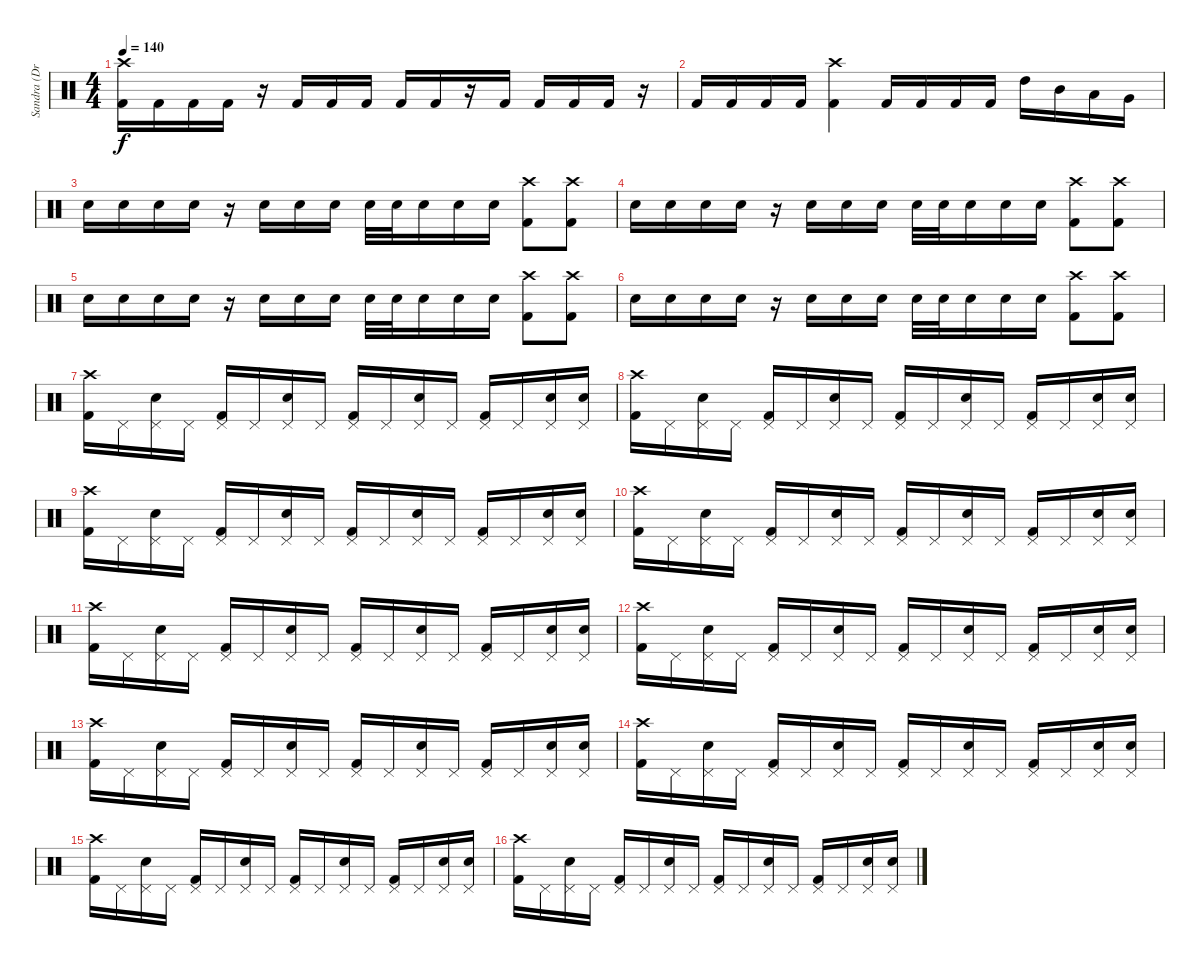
\track ("Sandra (Drums)" "Sandra (Dr") {instrument percussion}
\staff {score}
\articulation defaults
\ts (4 4)
\tempo 140
\clef neutral
\ks c
("Crash high (hit)" "Kick (hit) 2").16{dy f} "Kick (hit) 2".16 "Kick (hit) 2".16 "Kick (hit) 2".16 r.16 "Kick (hit) 2".16 "Kick (hit) 2".16 "Kick (hit) 2".16 "Kick (hit) 2".16 "Kick (hit) 2".16 r.16 "Kick (hit) 2".16 "Kick (hit) 2".16 "Kick (hit) 2".16 "Kick (hit) 2".16 r.16 |
"Kick (hit) 2".16 "Kick (hit) 2".16 "Kick (hit) 2".16 "Kick (hit) 2".16 ("Crash high (hit)" "Kick (hit) 2").4 "Kick (hit) 2".16 "Kick (hit) 2".16 "Kick (hit) 2".16 "Kick (hit) 2".16 "High Tom (hit)".16 "Mid Tom (hit)".16 "Low Tom (hit)".16 "Very Low Tom (hit)".16 |
"Snare (hit) 2".16 "Snare (hit) 2".16 "Snare (hit) 2".16 "Snare (hit) 2".16 r.16 "Snare (hit) 2".16 "Snare (hit) 2".16 "Snare (hit) 2".16 "Snare (hit) 2".32 "Snare (hit) 2".32 "Snare (hit) 2".16 "Snare (hit) 2".16 "Snare (hit) 2".16 ("Crash high (hit)" "Kick (hit) 2").8 ("Crash high (hit)" "Kick (hit) 2").8 |
"Snare (hit) 2".16 "Snare (hit) 2".16 "Snare (hit) 2".16 "Snare (hit) 2".16 r.16 "Snare (hit) 2".16 "Snare (hit) 2".16 "Snare (hit) 2".16 "Snare (hit) 2".32 "Snare (hit) 2".32 "Snare (hit) 2".16 "Snare (hit) 2".16 "Snare (hit) 2".16 ("Crash high (hit)" "Kick (hit) 2").8 ("Crash high (hit)" "Kick (hit) 2").8 |
"Snare (hit) 2".16 "Snare (hit) 2".16 "Snare (hit) 2".16 "Snare (hit) 2".16 r.16 "Snare (hit) 2".16 "Snare (hit) 2".16 "Snare (hit) 2".16 "Snare (hit) 2".32 "Snare (hit) 2".32 "Snare (hit) 2".16 "Snare (hit) 2".16 "Snare (hit) 2".16 ("Crash high (hit)" "Kick (hit) 2").8 ("Crash high (hit)" "Kick (hit) 2").8 |
"Snare (hit) 2".16 "Snare (hit) 2".16 "Snare (hit) 2".16 "Snare (hit) 2".16 r.16 "Snare (hit) 2".16 "Snare (hit) 2".16 "Snare (hit) 2".16 "Snare (hit) 2".32 "Snare (hit) 2".32 "Snare (hit) 2".16 "Snare (hit) 2".16 "Snare (hit) 2".16 ("Crash high (hit)" "Kick (hit) 2").8 ("Crash high (hit)" "Kick (hit) 2").8 |
("Crash high (hit)" "Kick (hit) 2").16 "Pedal Hi-Hat (hit)".16 ("Pedal Hi-Hat (hit)" "Snare (hit) 2").16 "Pedal Hi-Hat (hit)".16 ("Pedal Hi-Hat (hit)" "Kick (hit) 2").16 "Pedal Hi-Hat (hit)".16 ("Pedal Hi-Hat (hit)" "Snare (hit) 2").16 "Pedal Hi-Hat (hit)".16 ("Pedal Hi-Hat (hit)" "Kick (hit) 2").16 "Pedal Hi-Hat (hit)".16 ("Pedal Hi-Hat (hit)" "Snare (hit) 2").16 "Pedal Hi-Hat (hit)".16 ("Pedal Hi-Hat (hit)" "Kick (hit) 2").16 "Pedal Hi-Hat (hit)".16 ("Pedal Hi-Hat (hit)" "Snare (hit) 2").16 ("Pedal Hi-Hat (hit)" "Snare (hit) 2").16 |
("Crash high (hit)" "Kick (hit) 2").16 "Pedal Hi-Hat (hit)".16 ("Pedal Hi-Hat (hit)" "Snare (hit) 2").16 "Pedal Hi-Hat (hit)".16 ("Pedal Hi-Hat (hit)" "Kick (hit) 2").16 "Pedal Hi-Hat (hit)".16 ("Pedal Hi-Hat (hit)" "Snare (hit) 2").16 "Pedal Hi-Hat (hit)".16 ("Pedal Hi-Hat (hit)" "Kick (hit) 2").16 "Pedal Hi-Hat (hit)".16 ("Pedal Hi-Hat (hit)" "Snare (hit) 2").16 "Pedal Hi-Hat (hit)".16 ("Pedal Hi-Hat (hit)" "Kick (hit) 2").16 "Pedal Hi-Hat (hit)".16 ("Pedal Hi-Hat (hit)" "Snare (hit) 2").16 ("Pedal Hi-Hat (hit)" "Snare (hit) 2").16 |
("Crash high (hit)" "Kick (hit) 2").16 "Pedal Hi-Hat (hit)".16 ("Pedal Hi-Hat (hit)" "Snare (hit) 2").16 "Pedal Hi-Hat (hit)".16 ("Pedal Hi-Hat (hit)" "Kick (hit) 2").16 "Pedal Hi-Hat (hit)".16 ("Pedal Hi-Hat (hit)" "Snare (hit) 2").16 "Pedal Hi-Hat (hit)".16 ("Pedal Hi-Hat (hit)" "Kick (hit) 2").16 "Pedal Hi-Hat (hit)".16 ("Pedal Hi-Hat (hit)" "Snare (hit) 2").16 "Pedal Hi-Hat (hit)".16 ("Pedal Hi-Hat (hit)" "Kick (hit) 2").16 "Pedal Hi-Hat (hit)".16 ("Pedal Hi-Hat (hit)" "Snare (hit) 2").16 ("Pedal Hi-Hat (hit)" "Snare (hit) 2").16 |
("Crash high (hit)" "Kick (hit) 2").16 "Pedal Hi-Hat (hit)".16 ("Pedal Hi-Hat (hit)" "Snare (hit) 2").16 "Pedal Hi-Hat (hit)".16 ("Pedal Hi-Hat (hit)" "Kick (hit) 2").16 "Pedal Hi-Hat (hit)".16 ("Pedal Hi-Hat (hit)" "Snare (hit) 2").16 "Pedal Hi-Hat (hit)".16 ("Pedal Hi-Hat (hit)" "Kick (hit) 2").16 "Pedal Hi-Hat (hit)".16 ("Pedal Hi-Hat (hit)" "Snare (hit) 2").16 "Pedal Hi-Hat (hit)".16 ("Pedal Hi-Hat (hit)" "Kick (hit) 2").16 "Pedal Hi-Hat (hit)".16 ("Pedal Hi-Hat (hit)" "Snare (hit) 2").16 ("Pedal Hi-Hat (hit)" "Snare (hit) 2").16 |
("Crash high (hit)" "Kick (hit) 2").16 "Pedal Hi-Hat (hit)".16 ("Pedal Hi-Hat (hit)" "Snare (hit) 2").16 "Pedal Hi-Hat (hit)".16 ("Pedal Hi-Hat (hit)" "Kick (hit) 2").16 "Pedal Hi-Hat (hit)".16 ("Pedal Hi-Hat (hit)" "Snare (hit) 2").16 "Pedal Hi-Hat (hit)".16 ("Pedal Hi-Hat (hit)" "Kick (hit) 2").16 "Pedal Hi-Hat (hit)".16 ("Pedal Hi-Hat (hit)" "Snare (hit) 2").16 "Pedal Hi-Hat (hit)".16 ("Pedal Hi-Hat (hit)" "Kick (hit) 2").16 "Pedal Hi-Hat (hit)".16 ("Pedal Hi-Hat (hit)" "Snare (hit) 2").16 ("Pedal Hi-Hat (hit)" "Snare (hit) 2").16 |
("Crash high (hit)" "Kick (hit) 2").16 "Pedal Hi-Hat (hit)".16 ("Pedal Hi-Hat (hit)" "Snare (hit) 2").16 "Pedal Hi-Hat (hit)".16 ("Pedal Hi-Hat (hit)" "Kick (hit) 2").16 "Pedal Hi-Hat (hit)".16 ("Pedal Hi-Hat (hit)" "Snare (hit) 2").16 "Pedal Hi-Hat (hit)".16 ("Pedal Hi-Hat (hit)" "Kick (hit) 2").16 "Pedal Hi-Hat (hit)".16 ("Pedal Hi-Hat (hit)" "Snare (hit) 2").16 "Pedal Hi-Hat (hit)".16 ("Pedal Hi-Hat (hit)" "Kick (hit) 2").16 "Pedal Hi-Hat (hit)".16 ("Pedal Hi-Hat (hit)" "Snare (hit) 2").16 ("Pedal Hi-Hat (hit)" "Snare (hit) 2").16 |
("Crash high (hit)" "Kick (hit) 2").16 "Pedal Hi-Hat (hit)".16 ("Pedal Hi-Hat (hit)" "Snare (hit) 2").16 "Pedal Hi-Hat (hit)".16 ("Pedal Hi-Hat (hit)" "Kick (hit) 2").16 "Pedal Hi-Hat (hit)".16 ("Pedal Hi-Hat (hit)" "Snare (hit) 2").16 "Pedal Hi-Hat (hit)".16 ("Pedal Hi-Hat (hit)" "Kick (hit) 2").16 "Pedal Hi-Hat (hit)".16 ("Pedal Hi-Hat (hit)" "Snare (hit) 2").16 "Pedal Hi-Hat (hit)".16 ("Pedal Hi-Hat (hit)" "Kick (hit) 2").16 "Pedal Hi-Hat (hit)".16 ("Pedal Hi-Hat (hit)" "Snare (hit) 2").16 ("Pedal Hi-Hat (hit)" "Snare (hit) 2").16 |
("Crash high (hit)" "Kick (hit) 2").16 "Pedal Hi-Hat (hit)".16 ("Pedal Hi-Hat (hit)" "Snare (hit) 2").16 "Pedal Hi-Hat (hit)".16 ("Pedal Hi-Hat (hit)" "Kick (hit) 2").16 "Pedal Hi-Hat (hit)".16 ("Pedal Hi-Hat (hit)" "Snare (hit) 2").16 "Pedal Hi-Hat (hit)".16 ("Pedal Hi-Hat (hit)" "Kick (hit) 2").16 "Pedal Hi-Hat (hit)".16 ("Pedal Hi-Hat (hit)" "Snare (hit) 2").16 "Pedal Hi-Hat (hit)".16 ("Pedal Hi-Hat (hit)" "Kick (hit) 2").16 "Pedal Hi-Hat (hit)".16 ("Pedal Hi-Hat (hit)" "Snare (hit) 2").16 ("Pedal Hi-Hat (hit)" "Snare (hit) 2").16 |
("Crash high (hit)" "Kick (hit) 2").16 "Pedal Hi-Hat (hit)".16 ("Pedal Hi-Hat (hit)" "Snare (hit) 2").16 "Pedal Hi-Hat (hit)".16 ("Pedal Hi-Hat (hit)" "Kick (hit) 2").16 "Pedal Hi-Hat (hit)".16 ("Pedal Hi-Hat (hit)" "Snare (hit) 2").16 "Pedal Hi-Hat (hit)".16 ("Pedal Hi-Hat (hit)" "Kick (hit) 2").16 "Pedal Hi-Hat (hit)".16 ("Pedal Hi-Hat (hit)" "Snare (hit) 2").16 "Pedal Hi-Hat (hit)".16 ("Pedal Hi-Hat (hit)" "Kick (hit) 2").16 "Pedal Hi-Hat (hit)".16 ("Pedal Hi-Hat (hit)" "Snare (hit) 2").16 ("Pedal Hi-Hat (hit)" "Snare (hit) 2").16 |
("Crash high (hit)" "Kick (hit) 2").16 "Pedal Hi-Hat (hit)".16 ("Pedal Hi-Hat (hit)" "Snare (hit) 2").16 "Pedal Hi-Hat (hit)".16 ("Pedal Hi-Hat (hit)" "Kick (hit) 2").16 "Pedal Hi-Hat (hit)".16 ("Pedal Hi-Hat (hit)" "Snare (hit) 2").16 "Pedal Hi-Hat (hit)".16 ("Pedal Hi-Hat (hit)" "Kick (hit) 2").16 "Pedal Hi-Hat (hit)".16 ("Pedal Hi-Hat (hit)" "Snare (hit) 2").16 "Pedal Hi-Hat (hit)".16 ("Pedal Hi-Hat (hit)" "Kick (hit) 2").16 "Pedal Hi-Hat (hit)".16 ("Pedal Hi-Hat (hit)" "Snare (hit) 2").16 ("Pedal Hi-Hat (hit)" "Snare (hit) 2").16
